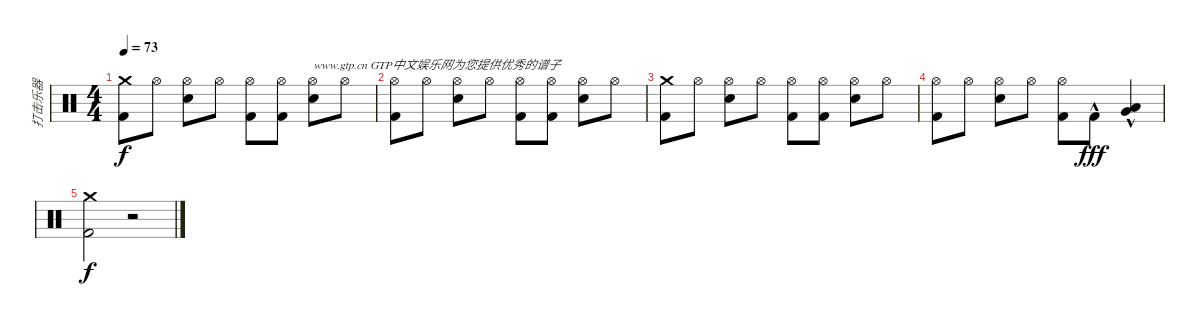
\track ("打击乐器" "打击乐器") {instrument percussion}
\staff {score}
\articulation defaults
\ts (4 4)
\tempo 73
\clef neutral
\ks c
("Crash medium (hit)" "Kick (hit) 2").8{dy f} "Hi-Hat (open)".8 ("Hi-Hat (open)" "Electric Snare (hit)").8 "Hi-Hat (open)".8 ("Hi-Hat (open)" "Kick (hit) 2").8 ("Hi-Hat (open)" "Kick (hit) 2").8 ("Hi-Hat (open)" "Electric Snare (hit)").8{txt "www.gtp.cn GTP中文娱乐网为您提供优秀的谱子"} "Hi-Hat (open)".8 |
("Hi-Hat (open)" "Kick (hit) 2").8 "Hi-Hat (open)".8 ("Hi-Hat (open)" "Electric Snare (hit)").8 "Hi-Hat (open)".8 ("Hi-Hat (open)" "Kick (hit) 2").8 ("Hi-Hat (open)" "Kick (hit) 2").8 ("Hi-Hat (open)" "Electric Snare (hit)").8 "Hi-Hat (open)".8 |
("Crash medium (hit)" "Kick (hit) 2").8 "Hi-Hat (open)".8 ("Hi-Hat (open)" "Electric Snare (hit)").8 "Hi-Hat (open)".8 ("Hi-Hat (open)" "Kick (hit) 2").8 ("Hi-Hat (open)" "Kick (hit) 2").8 ("Hi-Hat (open)" "Electric Snare (hit)").8 "Hi-Hat (open)".8 |
("Hi-Hat (open)" "Kick (hit) 2").8 "Hi-Hat (open)".8 ("Hi-Hat (open)" "Electric Snare (hit)").8 "Hi-Hat (open)".8 ("Hi-Hat (open)" "Kick (hit) 2").8 "Kick (hit) 2"{hac}.8{dy fff} ("Low Floor Tom (hit)" "Very Low Tom (hit)"{hac}).4 |
("Crash medium (hit)" "Kick (hit) 2").2{dy f} r.2
